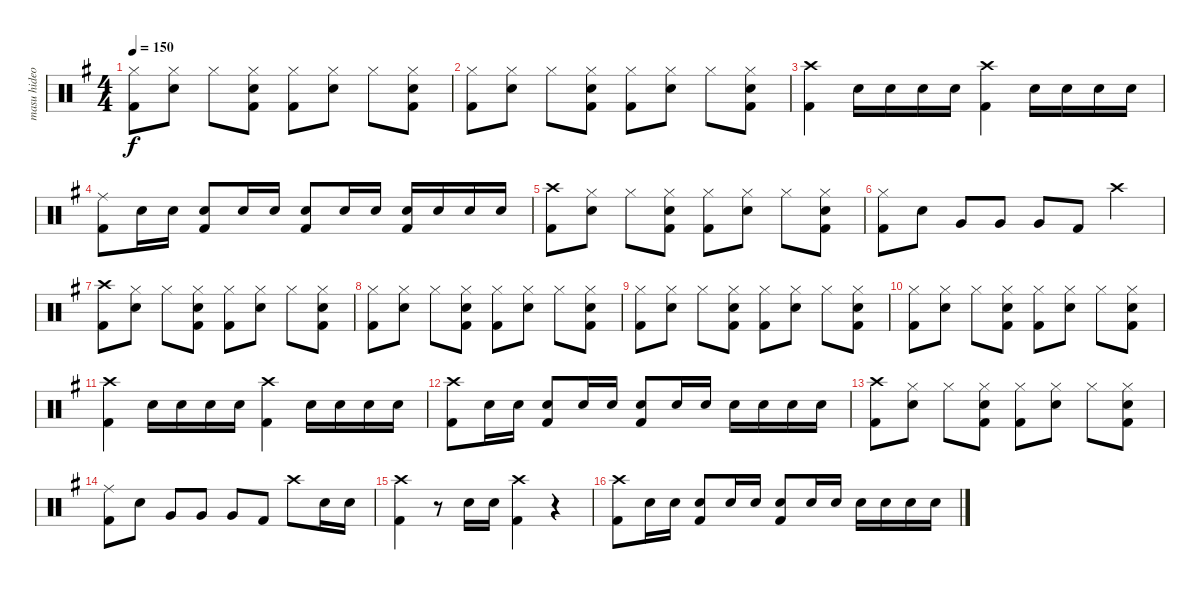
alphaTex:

\track ("masu hideo - drum" "masu hideo") {instrument percussion}
\staff {score}
\articulation defaults
\ts (4 4)
\tempo 150
\clef neutral
\ks g
("Hi-Hat (closed)" "Kick (hit) 2").8{dy f} ("Hi-Hat (closed)" "Electric Snare (hit)").8 "Hi-Hat (closed)".8 ("Hi-Hat (closed)" "Electric Snare (hit)" "Kick (hit) 2").8 ("Hi-Hat (closed)" "Kick (hit) 2").8 ("Hi-Hat (closed)" "Electric Snare (hit)").8 "Hi-Hat (closed)".8 ("Hi-Hat (closed)" "Electric Snare (hit)" "Kick (hit) 2").8 |
("Hi-Hat (closed)" "Kick (hit) 2").8 ("Hi-Hat (closed)" "Electric Snare (hit)").8 "Hi-Hat (closed)".8 ("Hi-Hat (closed)" "Electric Snare (hit)" "Kick (hit) 2").8 ("Hi-Hat (closed)" "Kick (hit) 2").8 ("Hi-Hat (closed)" "Electric Snare (hit)").8 "Hi-Hat (closed)".8 ("Hi-Hat (closed)" "Electric Snare (hit)" "Kick (hit) 2").8 |
("Crash high (hit)" "Kick (hit) 2").4 "Electric Snare (hit)".16 "Electric Snare (hit)".16 "Electric Snare (hit)".16 "Electric Snare (hit)".16 ("Crash high (hit)" "Kick (hit) 2").4 "Electric Snare (hit)".16 "Electric Snare (hit)".16 "Electric Snare (hit)".16 "Electric Snare (hit)".16 |
("Ride (middle)" "Kick (hit) 2").8 "Electric Snare (hit)".16 "Electric Snare (hit)".16 ("Electric Snare (hit)" "Kick (hit) 2").8 "Electric Snare (hit)".16 "Electric Snare (hit)".16 ("Electric Snare (hit)" "Kick (hit) 2").8 "Electric Snare (hit)".16 "Electric Snare (hit)".16 ("Electric Snare (hit)" "Kick (hit) 2").16 "Electric Snare (hit)".16 "Electric Snare (hit)".16 "Electric Snare (hit)".16 |
("Crash high (hit)" "Kick (hit) 2").8 ("Hi-Hat (closed)" "Electric Snare (hit)").8 "Hi-Hat (closed)".8 ("Hi-Hat (closed)" "Electric Snare (hit)" "Kick (hit) 2").8 ("Hi-Hat (closed)" "Kick (hit) 2").8 ("Hi-Hat (closed)" "Electric Snare (hit)").8 "Hi-Hat (closed)".8 ("Hi-Hat (closed)" "Electric Snare (hit)" "Kick (hit) 2").8 |
("Hi-Hat (closed)" "Kick (hit) 2").8 "Electric Snare (hit)".8 "Very Low Tom (hit)".8 "Very Low Tom (hit)".8 "Very Low Tom (hit)".8 "Kick (hit) 2".8 "Crash high (hit)".4 |
("Crash high (hit)" "Kick (hit) 2").8 ("Hi-Hat (closed)" "Electric Snare (hit)").8 "Hi-Hat (closed)".8 ("Hi-Hat (closed)" "Electric Snare (hit)" "Kick (hit) 2").8 ("Hi-Hat (closed)" "Kick (hit) 2").8 ("Hi-Hat (closed)" "Electric Snare (hit)").8 "Hi-Hat (closed)".8 ("Hi-Hat (closed)" "Electric Snare (hit)" "Kick (hit) 2").8 |
("Hi-Hat (closed)" "Kick (hit) 2").8 ("Hi-Hat (closed)" "Electric Snare (hit)").8 "Hi-Hat (closed)".8 ("Hi-Hat (closed)" "Electric Snare (hit)" "Kick (hit) 2").8 ("Hi-Hat (closed)" "Kick (hit) 2").8 ("Hi-Hat (closed)" "Electric Snare (hit)").8 "Hi-Hat (closed)".8 ("Hi-Hat (closed)" "Electric Snare (hit)" "Kick (hit) 2").8 |
("Hi-Hat (closed)" "Kick (hit) 2").8 ("Hi-Hat (closed)" "Electric Snare (hit)").8 "Hi-Hat (closed)".8 ("Hi-Hat (closed)" "Electric Snare (hit)" "Kick (hit) 2").8 ("Hi-Hat (closed)" "Kick (hit) 2").8 ("Hi-Hat (closed)" "Electric Snare (hit)").8 "Hi-Hat (closed)".8 ("Hi-Hat (closed)" "Electric Snare (hit)" "Kick (hit) 2").8 |
("Hi-Hat (closed)" "Kick (hit) 2").8 ("Hi-Hat (closed)" "Electric Snare (hit)").8 "Hi-Hat (closed)".8 ("Hi-Hat (closed)" "Electric Snare (hit)" "Kick (hit) 2").8 ("Hi-Hat (closed)" "Kick (hit) 2").8 ("Hi-Hat (closed)" "Electric Snare (hit)").8 "Hi-Hat (closed)".8 ("Hi-Hat (closed)" "Electric Snare (hit)" "Kick (hit) 2").8 |
("Crash high (hit)" "Kick (hit) 2").4 "Electric Snare (hit)".16 "Electric Snare (hit)".16 "Electric Snare (hit)".16 "Electric Snare (hit)".16 ("Crash high (hit)" "Kick (hit) 2").4 "Electric Snare (hit)".16 "Electric Snare (hit)".16 "Electric Snare (hit)".16 "Electric Snare (hit)".16 |
("Crash high (hit)" "Kick (hit) 2").8 "Electric Snare (hit)".16 "Electric Snare (hit)".16 ("Electric Snare (hit)" "Kick (hit) 2").8 "Electric Snare (hit)".16 "Electric Snare (hit)".16 ("Electric Snare (hit)" "Kick (hit) 2").8 "Electric Snare (hit)".16 "Electric Snare (hit)".16 "Electric Snare (hit)".16 "Electric Snare (hit)".16 "Electric Snare (hit)".16 "Electric Snare (hit)".16 |
("Crash high (hit)" "Kick (hit) 2").8 ("Hi-Hat (closed)" "Electric Snare (hit)").8 "Hi-Hat (closed)".8 ("Hi-Hat (closed)" "Electric Snare (hit)" "Kick (hit) 2").8 ("Hi-Hat (closed)" "Kick (hit) 2").8 ("Hi-Hat (closed)" "Electric Snare (hit)").8 "Hi-Hat (closed)".8 ("Hi-Hat (closed)" "Electric Snare (hit)" "Kick (hit) 2").8 |
("Ride (middle)" "Kick (hit) 2").8 "Electric Snare (hit)".8 "Very Low Tom (hit)".8 "Very Low Tom (hit)".8 "Very Low Tom (hit)".8 "Kick (hit) 2".8 "Crash high (hit)".8 "Electric Snare (hit)".16 "Electric Snare (hit)".16 |
("Crash high (hit)" "Kick (hit) 2").4 r.8 "Electric Snare (hit)".16 "Electric Snare (hit)".16 ("Crash high (hit)" "Kick (hit) 2").4 r.4 |
("Crash high (hit)" "Kick (hit) 2").8 "Electric Snare (hit)".16 "Electric Snare (hit)".16 ("Electric Snare (hit)" "Kick (hit) 2").8 "Electric Snare (hit)".16 "Electric Snare (hit)".16 ("Electric Snare (hit)" "Kick (hit) 2").8 "Electric Snare (hit)".16 "Electric Snare (hit)".16 "Electric Snare (hit)".16 "Electric Snare (hit)".16 "Electric Snare (hit)".16 "Electric Snare (hit)".16
